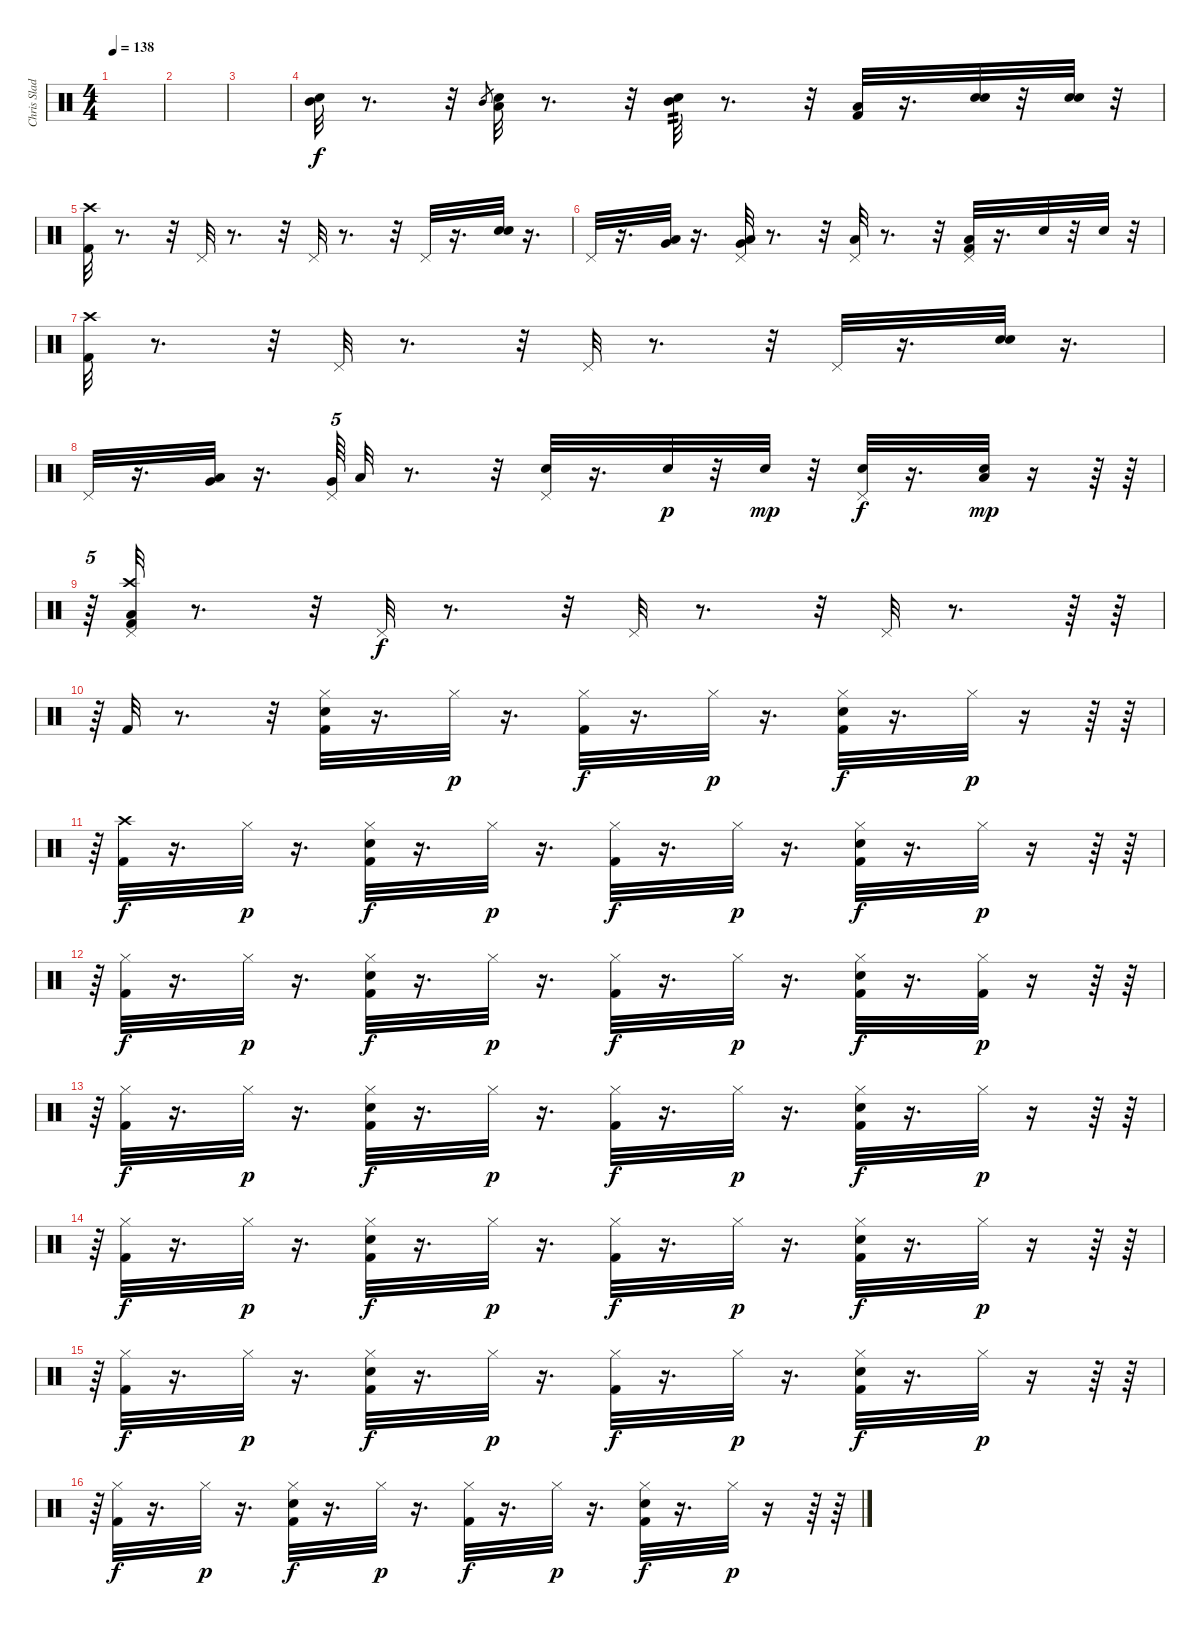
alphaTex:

\track ("Chris Slade" "Chris Slad") {instrument percussion}
\staff {score}
\articulation defaults
\ts (4 4)
\tempo 138
\clef neutral
\ks c
|
|
|
("Mid Tom (hit)" "Snare (hit) 2").32 r.8{d} r.32 "Mid Tom (hit)".8{gr} ("Low Tom (hit)" "Snare (hit) 2").32 r.8{d} r.32 ("Mid Tom (hit)" "Snare (hit) 2").32{tp 2} r.8{d} r.32 ("Low Tom (hit)" "Kick (hit) 2").32 r.16{d} ("Electric Snare (hit)" "Snare (hit) 2").32 r.32 ("Electric Snare (hit)" "Snare (hit) 2").32 r.32 |
("Crash high (hit)" "Kick (hit) 2").32 r.8{d} r.32 "Pedal Hi-Hat (hit)".32 r.8{d} r.32 "Pedal Hi-Hat (hit)".32 r.8{d} r.32 "Pedal Hi-Hat (hit)".32 r.16{d} ("Electric Snare (hit)" "Snare (hit) 2").32 r.16{d} |
"Pedal Hi-Hat (hit)".32 r.16{d} ("Low Tom (hit)" "Very Low Tom (hit)").32 r.16{d} ("Pedal Hi-Hat (hit)" "Very Low Tom (hit)" "Low Floor Tom (hit)").32 r.8{d} r.32 ("Pedal Hi-Hat (hit)" "Low Floor Tom (hit)").32 r.8{d} r.32 ("Pedal Hi-Hat (hit)" "Kick (hit) 2" "Low Floor Tom (hit)").32 r.16{d} "Electric Snare (hit)".32 r.32 "Electric Snare (hit)".32 r.32 |
("Crash high (hit)" "Kick (hit) 2").32 r.8{d} r.32 "Pedal Hi-Hat (hit)".32 r.8{d} r.32 "Pedal Hi-Hat (hit)".32 r.8{d} r.32 "Pedal Hi-Hat (hit)".32 r.16{d} ("Electric Snare (hit)" "Snare (hit) 2").32 r.16{d} |
"Pedal Hi-Hat (hit)".32 r.16{d} ("Low Tom (hit)" "Very Low Tom (hit)").32 r.16{d} ("Pedal Hi-Hat (hit)" "Very Low Tom (hit)").64{tu (5 4)} "Low Floor Tom (hit)".32 r.8{d} r.32 ("Pedal Hi-Hat (hit)" "Electric Snare (hit)").32 r.16{d} "Electric Snare (hit)".32{dy p} r.32 "Electric Snare (hit)".32{dy mp} r.32 ("Pedal Hi-Hat (hit)" "Electric Snare (hit)").32{dy f} r.16{d} ("Low Tom (hit)" "Electric Snare (hit)").32{dy mp} r.16 r.64 r.64 |
r.64{tu (5 4)} ("Pedal Hi-Hat (hit)" "Crash high (hit)" "Low Tom (hit)" "Kick (hit) 2").32 r.8{d} r.32 "Pedal Hi-Hat (hit)".32{dy f} r.8{d} r.32 "Pedal Hi-Hat (hit)".32 r.8{d} r.32 "Pedal Hi-Hat (hit)".32 r.8{d} r.64 r.64 |
r.64{tu (5 4)} "Kick (hit) 2".32 r.8{d} r.32 ("Kick (hit) 2" "Hi-Hat (closed)" "Electric Snare (hit)").32 r.16{d} "Hi-Hat (closed)".32{dy p} r.16{d} ("Hi-Hat (closed)" "Kick (hit) 2").32{dy f} r.16{d} "Hi-Hat (closed)".32{dy p} r.16{d} ("Kick (hit) 2" "Hi-Hat (closed)" "Electric Snare (hit)").32{dy f} r.16{d} "Hi-Hat (closed)".32{dy p} r.16 r.64 r.64 |
r.64{tu (5 4)} ("Crash high (hit)" "Kick (hit) 2").32{dy f} r.16{d} "Hi-Hat (closed)".32{dy p} r.16{d} ("Kick (hit) 2" "Hi-Hat (closed)" "Electric Snare (hit)").32{dy f} r.16{d} "Hi-Hat (closed)".32{dy p} r.16{d} ("Hi-Hat (closed)" "Kick (hit) 2").32{dy f} r.16{d} "Hi-Hat (closed)".32{dy p} r.16{d} ("Kick (hit) 2" "Hi-Hat (closed)" "Electric Snare (hit)").32{dy f} r.16{d} "Hi-Hat (closed)".32{dy p} r.16 r.64 r.64 |
r.64{tu (5 4)} ("Hi-Hat (closed)" "Kick (hit) 2").32{dy f} r.16{d} "Hi-Hat (closed)".32{dy p} r.16{d} ("Kick (hit) 2" "Electric Snare (hit)" "Hi-Hat (closed)").32{dy f} r.16{d} "Hi-Hat (closed)".32{dy p} r.16{d} ("Hi-Hat (closed)" "Kick (hit) 2").32{dy f} r.16{d} "Hi-Hat (closed)".32{dy p} r.16{d} ("Kick (hit) 2" "Electric Snare (hit)" "Hi-Hat (closed)").32{dy f} r.16{d} ("Hi-Hat (closed)" "Kick (hit) 2").32{dy p} r.16 r.64 r.64 |
r.64{tu (5 4)} ("Hi-Hat (closed)" "Kick (hit) 2").32{dy f} r.16{d} "Hi-Hat (closed)".32{dy p} r.16{d} ("Kick (hit) 2" "Hi-Hat (closed)" "Electric Snare (hit)").32{dy f} r.16{d} "Hi-Hat (closed)".32{dy p} r.16{d} ("Hi-Hat (closed)" "Kick (hit) 2").32{dy f} r.16{d} "Hi-Hat (closed)".32{dy p} r.16{d} ("Kick (hit) 2" "Hi-Hat (closed)" "Electric Snare (hit)").32{dy f} r.16{d} "Hi-Hat (closed)".32{dy p} r.16 r.64 r.64 |
r.64{tu (5 4)} ("Hi-Hat (closed)" "Kick (hit) 2").32{dy f} r.16{d} "Hi-Hat (closed)".32{dy p} r.16{d} ("Kick (hit) 2" "Hi-Hat (closed)" "Electric Snare (hit)").32{dy f} r.16{d} "Hi-Hat (closed)".32{dy p} r.16{d} ("Hi-Hat (closed)" "Kick (hit) 2").32{dy f} r.16{d} "Hi-Hat (closed)".32{dy p} r.16{d} ("Kick (hit) 2" "Hi-Hat (closed)" "Electric Snare (hit)").32{dy f} r.16{d} "Hi-Hat (closed)".32{dy p} r.16 r.64 r.64 |
r.64{tu (5 4)} ("Hi-Hat (closed)" "Kick (hit) 2").32{dy f} r.16{d} "Hi-Hat (closed)".32{dy p} r.16{d} ("Kick (hit) 2" "Hi-Hat (closed)" "Electric Snare (hit)").32{dy f} r.16{d} "Hi-Hat (closed)".32{dy p} r.16{d} ("Hi-Hat (closed)" "Kick (hit) 2").32{dy f} r.16{d} "Hi-Hat (closed)".32{dy p} r.16{d} ("Kick (hit) 2" "Hi-Hat (closed)" "Electric Snare (hit)").32{dy f} r.16{d} "Hi-Hat (closed)".32{dy p} r.16 r.64 r.64 |
r.64{tu (5 4)} ("Hi-Hat (closed)" "Kick (hit) 2").32{dy f} r.16{d} "Hi-Hat (closed)".32{dy p} r.16{d} ("Kick (hit) 2" "Hi-Hat (closed)" "Electric Snare (hit)").32{dy f} r.16{d} "Hi-Hat (closed)".32{dy p} r.16{d} ("Hi-Hat (closed)" "Kick (hit) 2").32{dy f} r.16{d} "Hi-Hat (closed)".32{dy p} r.16{d} ("Kick (hit) 2" "Hi-Hat (closed)" "Electric Snare (hit)").32{dy f} r.16{d} "Hi-Hat (closed)".32{dy p} r.16 r.64 r.64
